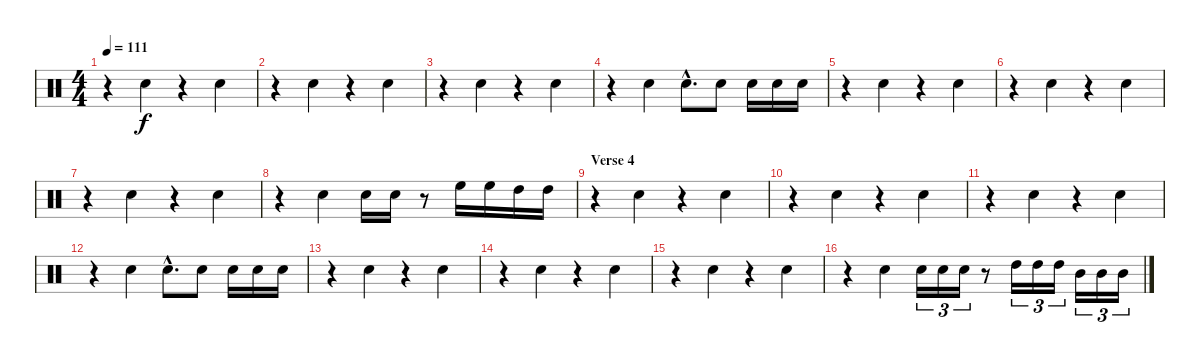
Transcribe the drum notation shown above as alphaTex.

\track "" {instrument percussion}
\staff {score}
\articulation defaults
\ts (4 4)
\tempo 111
\clef neutral
\ks c
r.4{dy f} "Electric Snare (hit)".4 r.4 "Electric Snare (hit)".4 |
r.4 "Electric Snare (hit)".4 r.4 "Electric Snare (hit)".4 |
r.4 "Electric Snare (hit)".4 r.4 "Electric Snare (hit)".4 |
r.4 "Electric Snare (hit)".4 "Electric Snare (hit)"{hac}.8{d} "Electric Snare (hit)".8 "Electric Snare (hit)".16 "Electric Snare (hit)".16 "Electric Snare (hit)".16 |
r.4 "Electric Snare (hit)".4 r.4 "Electric Snare (hit)".4 |
r.4 "Electric Snare (hit)".4 r.4 "Electric Snare (hit)".4 |
r.4 "Electric Snare (hit)".4 r.4 "Electric Snare (hit)".4 |
r.4 "Electric Snare (hit)".4 "Electric Snare (hit)".16 "Electric Snare (hit)".16 r.8 "High Floor Tom (hit)".16 "High Floor Tom (hit)".16 "High Tom (hit)".16 "High Tom (hit)".16 |
\section ("" "Verse 4")
r.4 "Electric Snare (hit)".4 r.4 "Electric Snare (hit)".4 |
r.4 "Electric Snare (hit)".4 r.4 "Electric Snare (hit)".4 |
r.4 "Electric Snare (hit)".4 r.4 "Electric Snare (hit)".4 |
r.4 "Electric Snare (hit)".4 "Electric Snare (hit)"{hac}.8{d} "Electric Snare (hit)".8 "Electric Snare (hit)".16 "Electric Snare (hit)".16 "Electric Snare (hit)".16 |
r.4 "Electric Snare (hit)".4 r.4 "Electric Snare (hit)".4 |
r.4 "Electric Snare (hit)".4 r.4 "Electric Snare (hit)".4 |
r.4 "Electric Snare (hit)".4 r.4 "Electric Snare (hit)".4 |
r.4 "Electric Snare (hit)".4 "Electric Snare (hit)".16{tu (3 2)} "Electric Snare (hit)".16{tu (3 2)} "Electric Snare (hit)".16{tu (3 2)} r.8 "High Tom (hit)".16{tu (3 2)} "High Tom (hit)".16{tu (3 2)} "High Tom (hit)".16{tu (3 2)} "Mid Tom (hit)".16{tu (3 2)} "Mid Tom (hit)".16{tu (3 2)} "Mid Tom (hit)".16{tu (3 2)}
